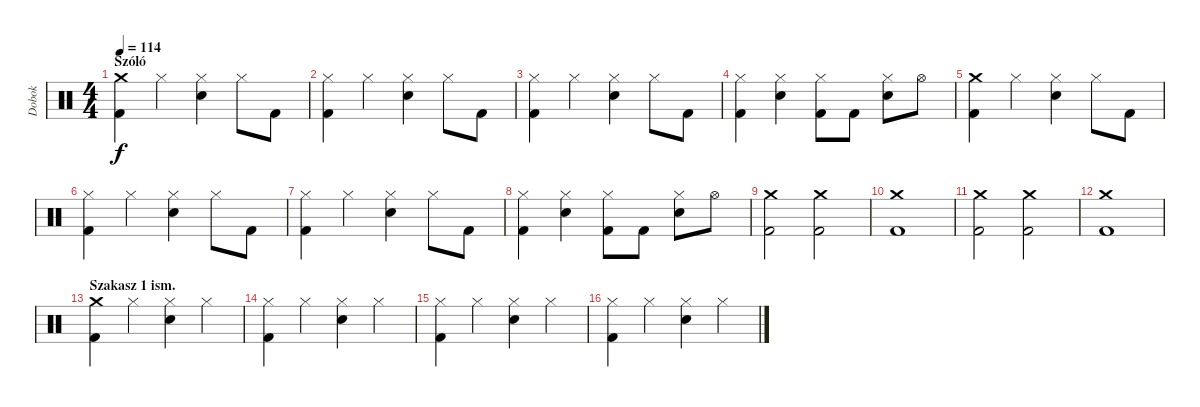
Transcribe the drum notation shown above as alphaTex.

\track ("Dobok" "Dobok") {instrument percussion}
\staff {score}
\articulation defaults
\ts (4 4)
\section ("" "Szóló")
\tempo 114
\clef neutral
\ks c
("Crash medium (hit)" "Kick (hit) 2").4{dy f} "Hi-Hat (closed)".4 ("Hi-Hat (closed)" "Snare (hit) 2").4 "Hi-Hat (closed)".8 "Kick (hit) 2".8 |
("Hi-Hat (closed)" "Kick (hit) 2").4 "Hi-Hat (closed)".4 ("Hi-Hat (closed)" "Snare (hit) 2").4 "Hi-Hat (closed)".8 "Kick (hit) 2".8 |
("Hi-Hat (closed)" "Kick (hit) 2").4 "Hi-Hat (closed)".4 ("Hi-Hat (closed)" "Snare (hit) 2").4 "Hi-Hat (closed)".8 "Kick (hit) 2".8 |
("Hi-Hat (closed)" "Kick (hit) 2").4 ("Hi-Hat (closed)" "Snare (hit) 2").4 ("Hi-Hat (closed)" "Kick (hit) 2").8 "Kick (hit) 2".8 ("Hi-Hat (closed)" "Snare (hit) 2").8 "Hi-Hat (open)".8 |
("Crash medium (hit)" "Kick (hit) 2").4 "Hi-Hat (closed)".4 ("Hi-Hat (closed)" "Snare (hit) 2").4 "Hi-Hat (closed)".8 "Kick (hit) 2".8 |
("Hi-Hat (closed)" "Kick (hit) 2").4 "Hi-Hat (closed)".4 ("Hi-Hat (closed)" "Snare (hit) 2").4 "Hi-Hat (closed)".8 "Kick (hit) 2".8 |
("Hi-Hat (closed)" "Kick (hit) 2").4 "Hi-Hat (closed)".4 ("Hi-Hat (closed)" "Snare (hit) 2").4 "Hi-Hat (closed)".8 "Kick (hit) 2".8 |
("Hi-Hat (closed)" "Kick (hit) 2").4 ("Hi-Hat (closed)" "Snare (hit) 2").4 ("Hi-Hat (closed)" "Kick (hit) 2").8 "Kick (hit) 2".8 ("Hi-Hat (closed)" "Snare (hit) 2").8 "Hi-Hat (open)".8 |
("Crash medium (hit)" "Kick (hit) 2").2 ("Crash medium (hit)" "Kick (hit) 2").2 |
("Crash medium (hit)" "Kick (hit) 2").1 |
("Crash medium (hit)" "Kick (hit) 2").2 ("Crash medium (hit)" "Kick (hit) 2").2 |
("Crash medium (hit)" "Kick (hit) 2").1 |
\section ("" "Szakasz 1 ism.")
("Crash medium (hit)" "Kick (hit) 2").4 "Hi-Hat (closed)".4 ("Hi-Hat (closed)" "Snare (hit) 2").4 "Hi-Hat (closed)".4 |
("Hi-Hat (closed)" "Kick (hit) 2").4 "Hi-Hat (closed)".4 ("Hi-Hat (closed)" "Snare (hit) 2").4 "Hi-Hat (closed)".4 |
("Hi-Hat (closed)" "Kick (hit) 2").4 "Hi-Hat (closed)".4 ("Hi-Hat (closed)" "Snare (hit) 2").4 "Hi-Hat (closed)".4 |
("Hi-Hat (closed)" "Kick (hit) 2").4 "Hi-Hat (closed)".4 ("Hi-Hat (closed)" "Snare (hit) 2").4 "Hi-Hat (closed)".4
